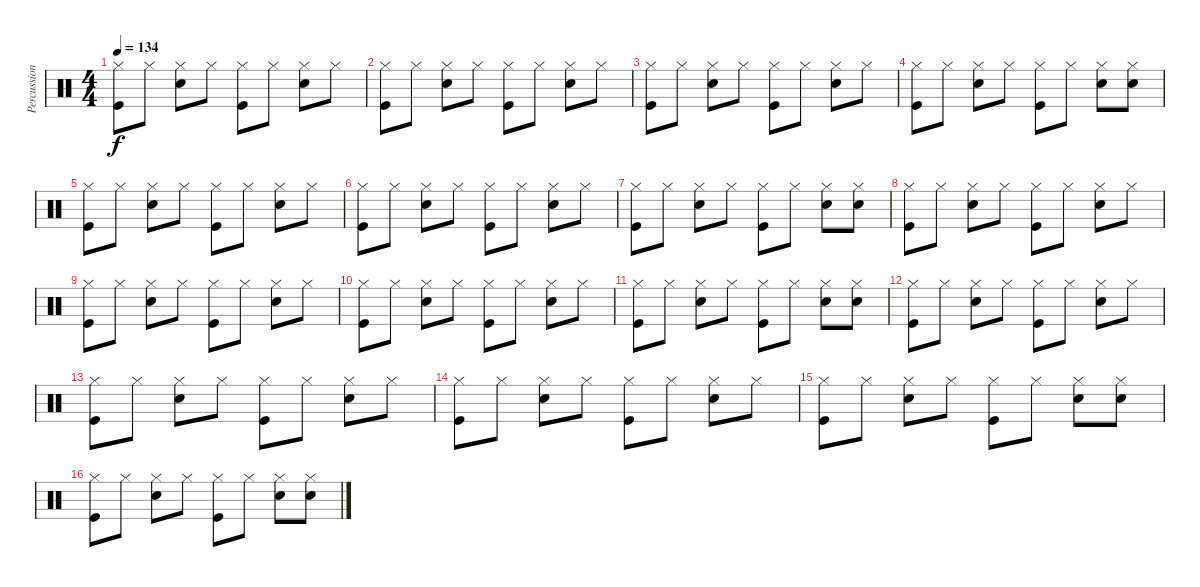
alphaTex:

\track ("Percussion" "Percussion") {instrument percussion}
\staff {score}
\articulation defaults
\ts (4 4)
\tempo 134
\clef neutral
\ks c
("Hi-Hat (closed)" "Kick (hit)").8{dy f} "Hi-Hat (closed)".8 ("Hi-Hat (closed)" "Snare (hit) 2").8 "Hi-Hat (closed)".8 ("Hi-Hat (closed)" "Kick (hit)").8 "Hi-Hat (closed)".8 ("Hi-Hat (closed)" "Snare (hit) 2").8 "Hi-Hat (closed)".8 |
("Hi-Hat (closed)" "Kick (hit)").8 "Hi-Hat (closed)".8 ("Hi-Hat (closed)" "Snare (hit) 2").8 "Hi-Hat (closed)".8 ("Hi-Hat (closed)" "Kick (hit)").8 "Hi-Hat (closed)".8 ("Hi-Hat (closed)" "Snare (hit) 2").8 "Hi-Hat (closed)".8 |
("Hi-Hat (closed)" "Kick (hit)").8 "Hi-Hat (closed)".8 ("Hi-Hat (closed)" "Snare (hit) 2").8 "Hi-Hat (closed)".8 ("Hi-Hat (closed)" "Kick (hit)").8 "Hi-Hat (closed)".8 ("Hi-Hat (closed)" "Snare (hit) 2").8 "Hi-Hat (closed)".8 |
("Hi-Hat (closed)" "Kick (hit)").8 "Hi-Hat (closed)".8 ("Hi-Hat (closed)" "Snare (hit) 2").8 "Hi-Hat (closed)".8 ("Hi-Hat (closed)" "Kick (hit)").8 "Hi-Hat (closed)".8 ("Hi-Hat (closed)" "Snare (hit) 2").8 ("Hi-Hat (closed)" "Snare (hit) 2").8 |
("Hi-Hat (closed)" "Kick (hit)").8 "Hi-Hat (closed)".8 ("Hi-Hat (closed)" "Snare (hit) 2").8 "Hi-Hat (closed)".8 ("Hi-Hat (closed)" "Kick (hit)").8 "Hi-Hat (closed)".8 ("Hi-Hat (closed)" "Snare (hit) 2").8 "Hi-Hat (closed)".8 |
("Hi-Hat (closed)" "Kick (hit)").8 "Hi-Hat (closed)".8 ("Hi-Hat (closed)" "Snare (hit) 2").8 "Hi-Hat (closed)".8 ("Hi-Hat (closed)" "Kick (hit)").8 "Hi-Hat (closed)".8 ("Hi-Hat (closed)" "Snare (hit) 2").8 "Hi-Hat (closed)".8 |
("Hi-Hat (closed)" "Kick (hit)").8 "Hi-Hat (closed)".8 ("Hi-Hat (closed)" "Snare (hit) 2").8 "Hi-Hat (closed)".8 ("Hi-Hat (closed)" "Kick (hit)").8 "Hi-Hat (closed)".8 ("Hi-Hat (closed)" "Snare (hit) 2").8 ("Hi-Hat (closed)" "Snare (hit) 2").8 |
("Hi-Hat (closed)" "Kick (hit)").8 "Hi-Hat (closed)".8 ("Hi-Hat (closed)" "Snare (hit) 2").8 "Hi-Hat (closed)".8 ("Hi-Hat (closed)" "Kick (hit)").8 "Hi-Hat (closed)".8 ("Hi-Hat (closed)" "Snare (hit) 2").8 "Hi-Hat (closed)".8 |
("Hi-Hat (closed)" "Kick (hit)").8 "Hi-Hat (closed)".8 ("Hi-Hat (closed)" "Snare (hit) 2").8 "Hi-Hat (closed)".8 ("Hi-Hat (closed)" "Kick (hit)").8 "Hi-Hat (closed)".8 ("Hi-Hat (closed)" "Snare (hit) 2").8 "Hi-Hat (closed)".8 |
("Hi-Hat (closed)" "Kick (hit)").8 "Hi-Hat (closed)".8 ("Hi-Hat (closed)" "Snare (hit) 2").8 "Hi-Hat (closed)".8 ("Hi-Hat (closed)" "Kick (hit)").8 "Hi-Hat (closed)".8 ("Hi-Hat (closed)" "Snare (hit) 2").8 "Hi-Hat (closed)".8 |
("Hi-Hat (closed)" "Kick (hit)").8 "Hi-Hat (closed)".8 ("Hi-Hat (closed)" "Snare (hit) 2").8 "Hi-Hat (closed)".8 ("Hi-Hat (closed)" "Kick (hit)").8 "Hi-Hat (closed)".8 ("Hi-Hat (closed)" "Snare (hit) 2").8 ("Hi-Hat (closed)" "Snare (hit) 2").8 |
("Hi-Hat (closed)" "Kick (hit)").8 "Hi-Hat (closed)".8 ("Hi-Hat (closed)" "Snare (hit) 2").8 "Hi-Hat (closed)".8 ("Hi-Hat (closed)" "Kick (hit)").8 "Hi-Hat (closed)".8 ("Hi-Hat (closed)" "Snare (hit) 2").8 "Hi-Hat (closed)".8 |
("Hi-Hat (closed)" "Kick (hit)").8 "Hi-Hat (closed)".8 ("Hi-Hat (closed)" "Snare (hit) 2").8 "Hi-Hat (closed)".8 ("Hi-Hat (closed)" "Kick (hit)").8 "Hi-Hat (closed)".8 ("Hi-Hat (closed)" "Snare (hit) 2").8 "Hi-Hat (closed)".8 |
("Hi-Hat (closed)" "Kick (hit)").8 "Hi-Hat (closed)".8 ("Hi-Hat (closed)" "Snare (hit) 2").8 "Hi-Hat (closed)".8 ("Hi-Hat (closed)" "Kick (hit)").8 "Hi-Hat (closed)".8 ("Hi-Hat (closed)" "Snare (hit) 2").8 "Hi-Hat (closed)".8 |
("Hi-Hat (closed)" "Kick (hit)").8 "Hi-Hat (closed)".8 ("Hi-Hat (closed)" "Snare (hit) 2").8 "Hi-Hat (closed)".8 ("Hi-Hat (closed)" "Kick (hit)").8 "Hi-Hat (closed)".8 ("Hi-Hat (closed)" "Snare (hit) 2").8 ("Hi-Hat (closed)" "Snare (hit) 2").8 |
("Hi-Hat (closed)" "Kick (hit)").8 "Hi-Hat (closed)".8 ("Hi-Hat (closed)" "Snare (hit) 2").8 "Hi-Hat (closed)".8 ("Hi-Hat (closed)" "Kick (hit)").8 "Hi-Hat (closed)".8 ("Hi-Hat (closed)" "Snare (hit) 2").8 ("Hi-Hat (closed)" "Snare (hit) 2").8
